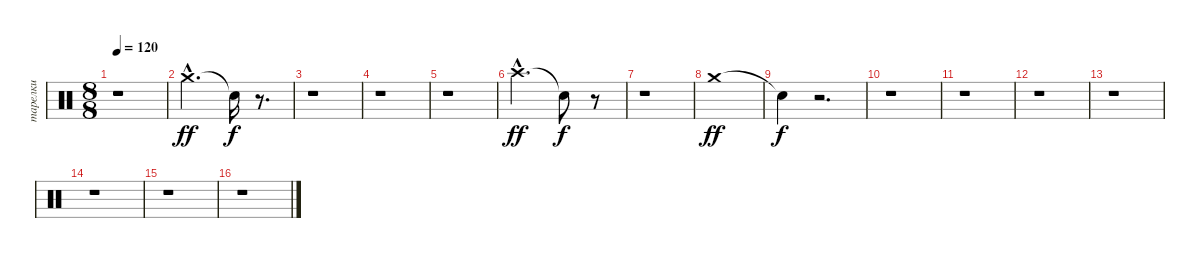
\track ("тарелки" "тарелки") {instrument percussion}
\staff {score}
\articulation defaults
\ts (8 8)
\tempo 120
\clef neutral
\ks c
r.1{dy ff} |
"Crash medium (hit)"{hac}.2{d} "Snare (hit)"{t}.16{dy f} r.8{d} |
r.1 |
r.1 |
r.1 |
"Crash high (hit)"{hac}.2{d dy ff} "Snare (hit)"{t}.8{dy f} r.8 |
r.1 |
"Crash medium (hit)".1{dy ff} |
"Snare (hit)"{t}.4{dy f} r.2{d} |
r.1 |
r.1 |
r.1 |
r.1 |
r.1 |
r.1 |
r.1
